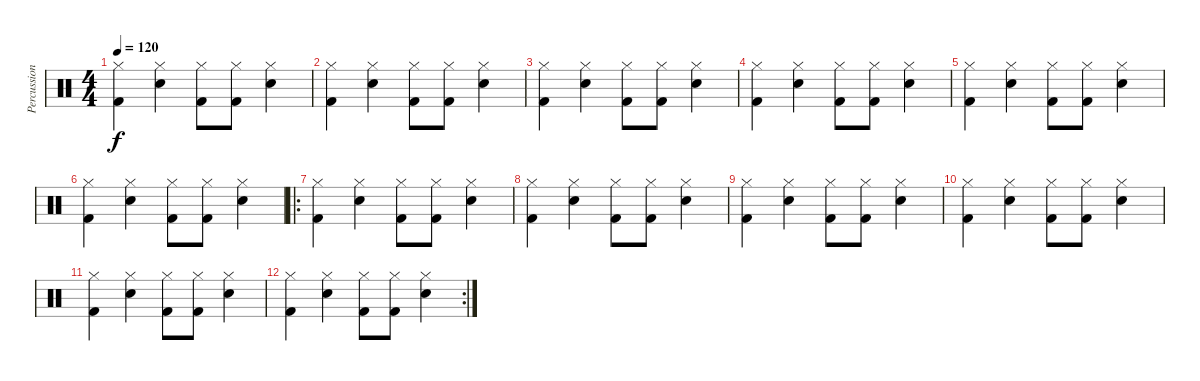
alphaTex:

\track ("Percussion" "Percussion") {instrument percussion}
\staff {score}
\articulation defaults
\ts (4 4)
\tempo 120
\clef neutral
\ks c
("Hi-Hat (closed)" "Kick (hit) 2").4{dy f} ("Hi-Hat (closed)" "Snare (hit) 2").4 ("Hi-Hat (closed)" "Kick (hit) 2").8 ("Hi-Hat (closed)" "Kick (hit) 2").8 ("Hi-Hat (closed)" "Snare (hit) 2").4 |
("Hi-Hat (closed)" "Kick (hit) 2").4 ("Hi-Hat (closed)" "Snare (hit) 2").4 ("Hi-Hat (closed)" "Kick (hit) 2").8 ("Hi-Hat (closed)" "Kick (hit) 2").8 ("Hi-Hat (closed)" "Snare (hit) 2").4 |
("Hi-Hat (closed)" "Kick (hit) 2").4 ("Hi-Hat (closed)" "Snare (hit) 2").4 ("Hi-Hat (closed)" "Kick (hit) 2").8 ("Hi-Hat (closed)" "Kick (hit) 2").8 ("Hi-Hat (closed)" "Snare (hit) 2").4 |
("Hi-Hat (closed)" "Kick (hit) 2").4 ("Hi-Hat (closed)" "Snare (hit) 2").4 ("Hi-Hat (closed)" "Kick (hit) 2").8 ("Hi-Hat (closed)" "Kick (hit) 2").8 ("Hi-Hat (closed)" "Snare (hit) 2").4 |
("Hi-Hat (closed)" "Kick (hit) 2").4 ("Hi-Hat (closed)" "Snare (hit) 2").4 ("Hi-Hat (closed)" "Kick (hit) 2").8 ("Hi-Hat (closed)" "Kick (hit) 2").8 ("Hi-Hat (closed)" "Snare (hit) 2").4 |
("Hi-Hat (closed)" "Kick (hit) 2").4 ("Hi-Hat (closed)" "Snare (hit) 2").4 ("Hi-Hat (closed)" "Kick (hit) 2").8 ("Hi-Hat (closed)" "Kick (hit) 2").8 ("Hi-Hat (closed)" "Snare (hit) 2").4 |
\ro
("Hi-Hat (closed)" "Kick (hit) 2").4 ("Hi-Hat (closed)" "Snare (hit) 2").4 ("Hi-Hat (closed)" "Kick (hit) 2").8 ("Hi-Hat (closed)" "Kick (hit) 2").8 ("Hi-Hat (closed)" "Snare (hit) 2").4 |
("Hi-Hat (closed)" "Kick (hit) 2").4 ("Hi-Hat (closed)" "Snare (hit) 2").4 ("Hi-Hat (closed)" "Kick (hit) 2").8 ("Hi-Hat (closed)" "Kick (hit) 2").8 ("Hi-Hat (closed)" "Snare (hit) 2").4 |
("Hi-Hat (closed)" "Kick (hit) 2").4 ("Hi-Hat (closed)" "Snare (hit) 2").4 ("Hi-Hat (closed)" "Kick (hit) 2").8 ("Hi-Hat (closed)" "Kick (hit) 2").8 ("Hi-Hat (closed)" "Snare (hit) 2").4 |
("Hi-Hat (closed)" "Kick (hit) 2").4 ("Hi-Hat (closed)" "Snare (hit) 2").4 ("Hi-Hat (closed)" "Kick (hit) 2").8 ("Hi-Hat (closed)" "Kick (hit) 2").8 ("Hi-Hat (closed)" "Snare (hit) 2").4 |
("Hi-Hat (closed)" "Kick (hit) 2").4 ("Hi-Hat (closed)" "Snare (hit) 2").4 ("Hi-Hat (closed)" "Kick (hit) 2").8 ("Hi-Hat (closed)" "Kick (hit) 2").8 ("Hi-Hat (closed)" "Snare (hit) 2").4 |
\rc 2
("Hi-Hat (closed)" "Kick (hit) 2").4 ("Hi-Hat (closed)" "Snare (hit) 2").4 ("Hi-Hat (closed)" "Kick (hit) 2").8 ("Hi-Hat (closed)" "Kick (hit) 2").8 ("Hi-Hat (closed)" "Snare (hit) 2").4
